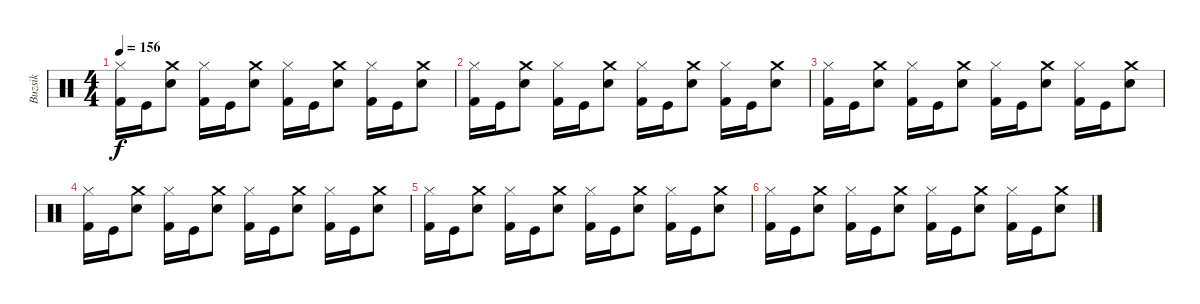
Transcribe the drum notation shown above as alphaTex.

\track ("Buzsik" "Buzsik") {instrument percussion}
\staff {score}
\articulation defaults
\ts (4 4)
\tempo 156
\clef neutral
\ks c
("Hi-Hat (closed)" "Kick (hit) 2").16{dy f} "Kick (hit)".16 ("Crash medium (hit)" "Snare (hit) 2").8 ("Hi-Hat (closed)" "Kick (hit) 2").16 "Kick (hit)".16 ("Crash medium (hit)" "Snare (hit) 2").8 ("Hi-Hat (closed)" "Kick (hit) 2").16 "Kick (hit)".16 ("Crash medium (hit)" "Snare (hit) 2").8 ("Hi-Hat (closed)" "Kick (hit) 2").16 "Kick (hit)".16 ("Crash medium (hit)" "Snare (hit) 2").8 |
("Hi-Hat (closed)" "Kick (hit) 2").16 "Kick (hit)".16 ("Crash medium (hit)" "Snare (hit) 2").8 ("Hi-Hat (closed)" "Kick (hit) 2").16 "Kick (hit)".16 ("Crash medium (hit)" "Snare (hit) 2").8 ("Hi-Hat (closed)" "Kick (hit) 2").16 "Kick (hit)".16 ("Crash medium (hit)" "Snare (hit) 2").8 ("Hi-Hat (closed)" "Kick (hit) 2").16 "Kick (hit)".16 ("Crash medium (hit)" "Snare (hit) 2").8 |
("Hi-Hat (closed)" "Kick (hit) 2").16 "Kick (hit)".16 ("Crash medium (hit)" "Snare (hit) 2").8 ("Hi-Hat (closed)" "Kick (hit) 2").16 "Kick (hit)".16 ("Crash medium (hit)" "Snare (hit) 2").8 ("Hi-Hat (closed)" "Kick (hit) 2").16 "Kick (hit)".16 ("Crash medium (hit)" "Snare (hit) 2").8 ("Hi-Hat (closed)" "Kick (hit) 2").16 "Kick (hit)".16 ("Crash medium (hit)" "Snare (hit) 2").8 |
("Hi-Hat (closed)" "Kick (hit) 2").16 "Kick (hit)".16 ("Crash medium (hit)" "Snare (hit) 2").8 ("Hi-Hat (closed)" "Kick (hit) 2").16 "Kick (hit)".16 ("Crash medium (hit)" "Snare (hit) 2").8 ("Hi-Hat (closed)" "Kick (hit) 2").16 "Kick (hit)".16 ("Crash medium (hit)" "Snare (hit) 2").8 ("Hi-Hat (closed)" "Kick (hit) 2").16 "Kick (hit)".16 ("Crash medium (hit)" "Snare (hit) 2").8 |
("Hi-Hat (closed)" "Kick (hit) 2").16 "Kick (hit)".16 ("Crash medium (hit)" "Snare (hit) 2").8 ("Hi-Hat (closed)" "Kick (hit) 2").16 "Kick (hit)".16 ("Crash medium (hit)" "Snare (hit) 2").8 ("Hi-Hat (closed)" "Kick (hit) 2").16 "Kick (hit)".16 ("Crash medium (hit)" "Snare (hit) 2").8 ("Hi-Hat (closed)" "Kick (hit) 2").16 "Kick (hit)".16 ("Crash medium (hit)" "Snare (hit) 2").8 |
("Hi-Hat (closed)" "Kick (hit) 2").16 "Kick (hit)".16 ("Crash medium (hit)" "Snare (hit) 2").8 ("Hi-Hat (closed)" "Kick (hit) 2").16 "Kick (hit)".16 ("Crash medium (hit)" "Snare (hit) 2").8 ("Hi-Hat (closed)" "Kick (hit) 2").16 "Kick (hit)".16 ("Crash medium (hit)" "Snare (hit) 2").8 ("Hi-Hat (closed)" "Kick (hit) 2").16 "Kick (hit)".16 ("Crash medium (hit)" "Snare (hit) 2").8
